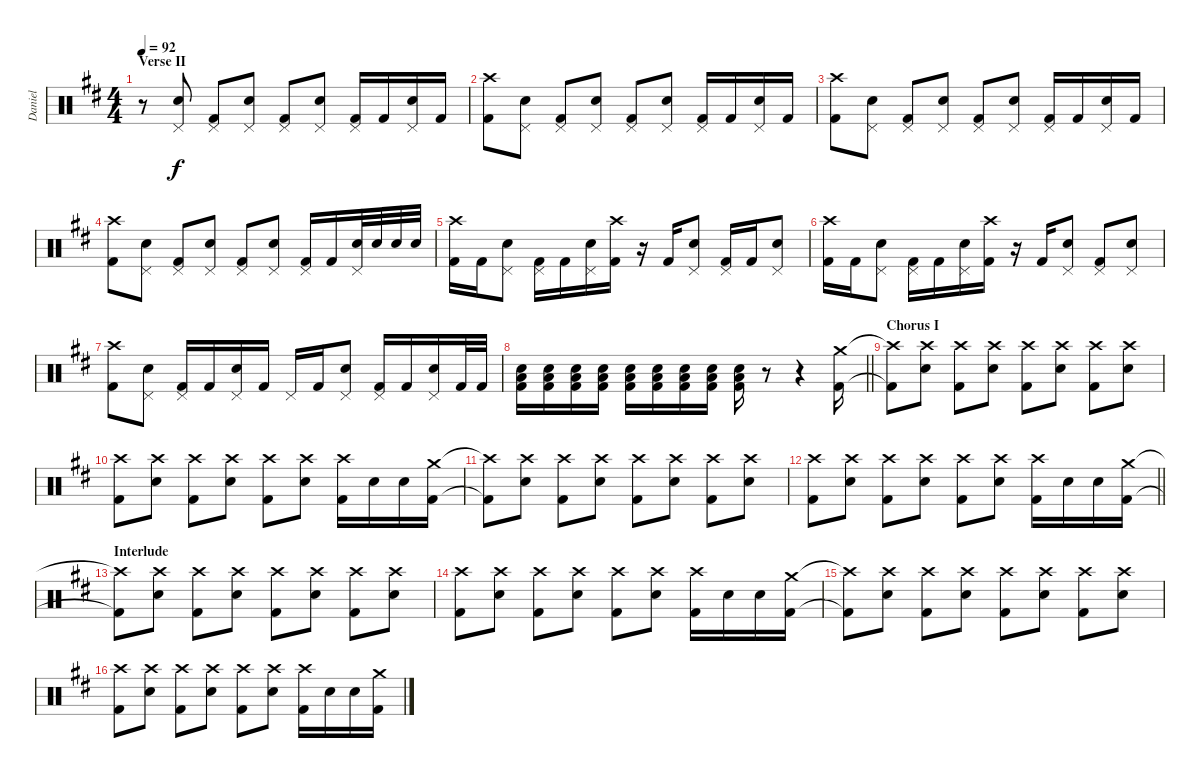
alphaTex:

\track ("Daniel" "Daniel") {instrument percussion}
\staff {score}
\articulation defaults
\ts (4 4)
\section ("" "Verse II")
\tempo 92
\clef neutral
\ks bminor
r.8{dy f} ("Pedal Hi-Hat (hit)" "Electric Snare (hit)").8 ("Pedal Hi-Hat (hit)" "Kick (hit) 2").8 ("Pedal Hi-Hat (hit)" "Electric Snare (hit)").8 ("Pedal Hi-Hat (hit)" "Kick (hit) 2").8 ("Pedal Hi-Hat (hit)" "Electric Snare (hit)").8 ("Pedal Hi-Hat (hit)" "Kick (hit) 2").16 "Kick (hit) 2".16 ("Pedal Hi-Hat (hit)" "Electric Snare (hit)").16 "Kick (hit) 2".16 |
("Crash high (hit)" "Kick (hit) 2").8 ("Pedal Hi-Hat (hit)" "Electric Snare (hit)").8 ("Pedal Hi-Hat (hit)" "Kick (hit) 2").8 ("Pedal Hi-Hat (hit)" "Electric Snare (hit)").8 ("Pedal Hi-Hat (hit)" "Kick (hit) 2").8 ("Pedal Hi-Hat (hit)" "Electric Snare (hit)").8 ("Pedal Hi-Hat (hit)" "Kick (hit) 2").16 "Kick (hit) 2".16 ("Pedal Hi-Hat (hit)" "Electric Snare (hit)").16 "Kick (hit) 2".16 |
("Crash high (hit)" "Kick (hit) 2").8 ("Pedal Hi-Hat (hit)" "Electric Snare (hit)").8 ("Pedal Hi-Hat (hit)" "Kick (hit) 2").8 ("Pedal Hi-Hat (hit)" "Electric Snare (hit)").8 ("Pedal Hi-Hat (hit)" "Kick (hit) 2").8 ("Pedal Hi-Hat (hit)" "Electric Snare (hit)").8 ("Pedal Hi-Hat (hit)" "Kick (hit) 2").16 "Kick (hit) 2".16 ("Pedal Hi-Hat (hit)" "Electric Snare (hit)").16 "Kick (hit) 2".16 |
("Crash high (hit)" "Kick (hit) 2").8 ("Pedal Hi-Hat (hit)" "Electric Snare (hit)").8 ("Pedal Hi-Hat (hit)" "Kick (hit) 2").8 ("Pedal Hi-Hat (hit)" "Electric Snare (hit)").8 ("Pedal Hi-Hat (hit)" "Kick (hit) 2").8 ("Pedal Hi-Hat (hit)" "Electric Snare (hit)").8 ("Pedal Hi-Hat (hit)" "Kick (hit) 2").16 "Kick (hit) 2".16 ("Pedal Hi-Hat (hit)" "Electric Snare (hit)").32 "Electric Snare (hit)".32 "Electric Snare (hit)".32 "Electric Snare (hit)".32 |
("Crash high (hit)" "Kick (hit) 2").16 "Kick (hit) 2".16 ("Pedal Hi-Hat (hit)" "Electric Snare (hit)").8 ("Pedal Hi-Hat (hit)" "Kick (hit) 2").16 "Kick (hit) 2".16 ("Pedal Hi-Hat (hit)" "Electric Snare (hit)").16 ("Crash high (hit)" "Kick (hit) 2").16 r.16 "Kick (hit) 2".16 ("Pedal Hi-Hat (hit)" "Electric Snare (hit)").8 ("Pedal Hi-Hat (hit)" "Kick (hit) 2").16 "Kick (hit) 2".16 ("Pedal Hi-Hat (hit)" "Electric Snare (hit)").8 |
("Crash high (hit)" "Kick (hit) 2").16 "Kick (hit) 2".16 ("Pedal Hi-Hat (hit)" "Electric Snare (hit)").8 ("Pedal Hi-Hat (hit)" "Kick (hit) 2").16 "Kick (hit) 2".16 ("Pedal Hi-Hat (hit)" "Electric Snare (hit)").16 ("Crash high (hit)" "Kick (hit) 2").16 r.16 "Kick (hit) 2".16 ("Pedal Hi-Hat (hit)" "Electric Snare (hit)").8 ("Pedal Hi-Hat (hit)" "Kick (hit) 2").8 ("Pedal Hi-Hat (hit)" "Electric Snare (hit)").8 |
("Crash high (hit)" "Kick (hit) 2").8 ("Pedal Hi-Hat (hit)" "Electric Snare (hit)").8 ("Pedal Hi-Hat (hit)" "Kick (hit) 2").16 "Kick (hit) 2".16 ("Pedal Hi-Hat (hit)" "Electric Snare (hit)").16 "Kick (hit) 2".16 "Pedal Hi-Hat (hit)".16 "Kick (hit) 2".16 ("Pedal Hi-Hat (hit)" "Electric Snare (hit)").8 ("Pedal Hi-Hat (hit)" "Kick (hit) 2").16 "Kick (hit) 2".16 ("Pedal Hi-Hat (hit)" "Electric Snare (hit)").16 "Kick (hit) 2".32 "Kick (hit) 2".32 |
\barLineRight lightlight
("Electric Snare (hit)" "Low Floor Tom (hit)" "Kick (hit) 2").16 ("Electric Snare (hit)" "Low Floor Tom (hit)" "Kick (hit) 2").16 ("Electric Snare (hit)" "Low Floor Tom (hit)" "Kick (hit) 2").16 ("Electric Snare (hit)" "Low Floor Tom (hit)" "Kick (hit) 2").16 ("Electric Snare (hit)" "Low Floor Tom (hit)" "Kick (hit) 2").16 ("Electric Snare (hit)" "Low Floor Tom (hit)" "Kick (hit) 2").16 ("Electric Snare (hit)" "Low Floor Tom (hit)" "Kick (hit) 2").16 ("Electric Snare (hit)" "Low Floor Tom (hit)" "Kick (hit) 2").16 ("Electric Snare (hit)" "Low Floor Tom (hit)" "Kick (hit) 2").16 r.8 r.4 ("Crash medium (hit)" "Kick (hit) 2").16 |
\section ("" "Chorus I")
("Crash high (hit)"{t} "Kick (hit) 2"{t}).8 ("Crash high (hit)" "Electric Snare (hit)").8 ("Crash high (hit)" "Kick (hit) 2").8 ("Crash high (hit)" "Electric Snare (hit)").8 ("Crash high (hit)" "Kick (hit) 2").8 ("Crash high (hit)" "Electric Snare (hit)").8 ("Crash high (hit)" "Kick (hit) 2").8 ("Crash high (hit)" "Electric Snare (hit)").8 |
("Crash high (hit)" "Kick (hit) 2").8 ("Crash high (hit)" "Electric Snare (hit)").8 ("Crash high (hit)" "Kick (hit) 2").8 ("Crash high (hit)" "Electric Snare (hit)").8 ("Crash high (hit)" "Kick (hit) 2").8 ("Crash high (hit)" "Electric Snare (hit)").8 ("Crash high (hit)" "Kick (hit) 2").16 "Electric Snare (hit)".16 "Electric Snare (hit)".16 ("Crash medium (hit)" "Kick (hit) 2").16 |
("Crash high (hit)"{t} "Kick (hit) 2"{t}).8 ("Crash high (hit)" "Electric Snare (hit)").8 ("Crash high (hit)" "Kick (hit) 2").8 ("Crash high (hit)" "Electric Snare (hit)").8 ("Crash high (hit)" "Kick (hit) 2").8 ("Crash high (hit)" "Electric Snare (hit)").8 ("Crash high (hit)" "Kick (hit) 2").8 ("Crash high (hit)" "Electric Snare (hit)").8 |
\barLineRight lightlight
("Crash high (hit)" "Kick (hit) 2").8 ("Crash high (hit)" "Electric Snare (hit)").8 ("Crash high (hit)" "Kick (hit) 2").8 ("Crash high (hit)" "Electric Snare (hit)").8 ("Crash high (hit)" "Kick (hit) 2").8 ("Crash high (hit)" "Electric Snare (hit)").8 ("Crash high (hit)" "Kick (hit) 2").16 "Electric Snare (hit)".16 "Electric Snare (hit)".16 ("Crash medium (hit)" "Kick (hit) 2").16 |
\section ("" "Interlude")
("Crash high (hit)"{t} "Kick (hit) 2"{t}).8 ("Crash high (hit)" "Electric Snare (hit)").8 ("Crash high (hit)" "Kick (hit) 2").8 ("Crash high (hit)" "Electric Snare (hit)").8 ("Crash high (hit)" "Kick (hit) 2").8 ("Crash high (hit)" "Electric Snare (hit)").8 ("Crash high (hit)" "Kick (hit) 2").8 ("Crash high (hit)" "Electric Snare (hit)").8 |
("Crash high (hit)" "Kick (hit) 2").8 ("Crash high (hit)" "Electric Snare (hit)").8 ("Crash high (hit)" "Kick (hit) 2").8 ("Crash high (hit)" "Electric Snare (hit)").8 ("Crash high (hit)" "Kick (hit) 2").8 ("Crash high (hit)" "Electric Snare (hit)").8 ("Crash high (hit)" "Kick (hit) 2").16 "Electric Snare (hit)".16 "Electric Snare (hit)".16 ("Crash medium (hit)" "Kick (hit) 2").16 |
("Crash high (hit)"{t} "Kick (hit) 2"{t}).8 ("Crash high (hit)" "Electric Snare (hit)").8 ("Crash high (hit)" "Kick (hit) 2").8 ("Crash high (hit)" "Electric Snare (hit)").8 ("Crash high (hit)" "Kick (hit) 2").8 ("Crash high (hit)" "Electric Snare (hit)").8 ("Crash high (hit)" "Kick (hit) 2").8 ("Crash high (hit)" "Electric Snare (hit)").8 |
("Crash high (hit)" "Kick (hit) 2").8 ("Crash high (hit)" "Electric Snare (hit)").8 ("Crash high (hit)" "Kick (hit) 2").8 ("Crash high (hit)" "Electric Snare (hit)").8 ("Crash high (hit)" "Kick (hit) 2").8 ("Crash high (hit)" "Electric Snare (hit)").8 ("Crash high (hit)" "Kick (hit) 2").16 "Electric Snare (hit)".16 "Electric Snare (hit)".16 ("Crash medium (hit)" "Kick (hit) 2").16
